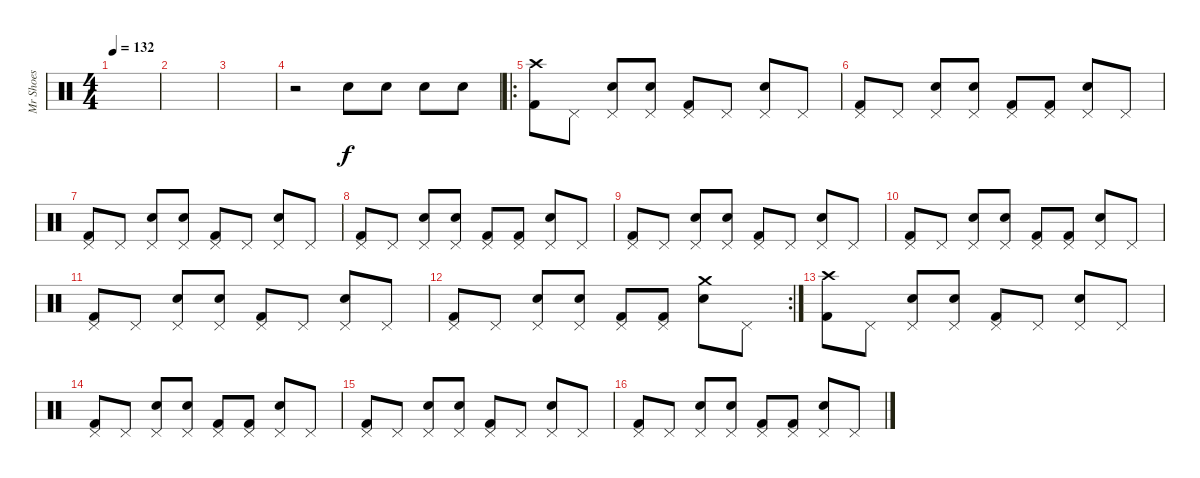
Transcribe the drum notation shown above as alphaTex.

\track ("Mr Shoes" "Mr Shoes") {instrument percussion}
\staff {score}
\articulation defaults
\ts (4 4)
\tempo 132
\clef neutral
\ks c
|
|
|
r.2 "Electric Snare (hit)".8 "Electric Snare (hit)".8 "Electric Snare (hit)".8 "Electric Snare (hit)".8 |
\ro
("Kick (hit) 2" "Crash high (hit)").8 "Pedal Hi-Hat (hit)".8 ("Electric Snare (hit)" "Pedal Hi-Hat (hit)").8 ("Electric Snare (hit)" "Pedal Hi-Hat (hit)").8 ("Kick (hit) 2" "Pedal Hi-Hat (hit)").8 "Pedal Hi-Hat (hit)".8 ("Electric Snare (hit)" "Pedal Hi-Hat (hit)").8 "Pedal Hi-Hat (hit)".8 |
("Kick (hit) 2" "Pedal Hi-Hat (hit)").8 "Pedal Hi-Hat (hit)".8 ("Electric Snare (hit)" "Pedal Hi-Hat (hit)").8 ("Electric Snare (hit)" "Pedal Hi-Hat (hit)").8 ("Kick (hit) 2" "Pedal Hi-Hat (hit)").8 ("Kick (hit) 2" "Pedal Hi-Hat (hit)").8 ("Electric Snare (hit)" "Pedal Hi-Hat (hit)").8 "Pedal Hi-Hat (hit)".8 |
("Kick (hit) 2" "Pedal Hi-Hat (hit)").8 "Pedal Hi-Hat (hit)".8 ("Electric Snare (hit)" "Pedal Hi-Hat (hit)").8 ("Electric Snare (hit)" "Pedal Hi-Hat (hit)").8 ("Kick (hit) 2" "Pedal Hi-Hat (hit)").8 "Pedal Hi-Hat (hit)".8 ("Electric Snare (hit)" "Pedal Hi-Hat (hit)").8 "Pedal Hi-Hat (hit)".8 |
("Kick (hit) 2" "Pedal Hi-Hat (hit)").8 "Pedal Hi-Hat (hit)".8 ("Electric Snare (hit)" "Pedal Hi-Hat (hit)").8 ("Electric Snare (hit)" "Pedal Hi-Hat (hit)").8 ("Kick (hit) 2" "Pedal Hi-Hat (hit)").8 ("Kick (hit) 2" "Pedal Hi-Hat (hit)").8 ("Electric Snare (hit)" "Pedal Hi-Hat (hit)").8 "Pedal Hi-Hat (hit)".8 |
("Kick (hit) 2" "Pedal Hi-Hat (hit)").8 "Pedal Hi-Hat (hit)".8 ("Electric Snare (hit)" "Pedal Hi-Hat (hit)").8 ("Electric Snare (hit)" "Pedal Hi-Hat (hit)").8 ("Kick (hit) 2" "Pedal Hi-Hat (hit)").8 "Pedal Hi-Hat (hit)".8 ("Electric Snare (hit)" "Pedal Hi-Hat (hit)").8 "Pedal Hi-Hat (hit)".8 |
("Kick (hit) 2" "Pedal Hi-Hat (hit)").8 "Pedal Hi-Hat (hit)".8 ("Electric Snare (hit)" "Pedal Hi-Hat (hit)").8 ("Electric Snare (hit)" "Pedal Hi-Hat (hit)").8 ("Kick (hit) 2" "Pedal Hi-Hat (hit)").8 ("Kick (hit) 2" "Pedal Hi-Hat (hit)").8 ("Electric Snare (hit)" "Pedal Hi-Hat (hit)").8 "Pedal Hi-Hat (hit)".8 |
("Kick (hit) 2" "Pedal Hi-Hat (hit)").8 "Pedal Hi-Hat (hit)".8 ("Electric Snare (hit)" "Pedal Hi-Hat (hit)").8 ("Electric Snare (hit)" "Pedal Hi-Hat (hit)").8 ("Kick (hit) 2" "Pedal Hi-Hat (hit)").8 "Pedal Hi-Hat (hit)".8 ("Electric Snare (hit)" "Pedal Hi-Hat (hit)").8 "Pedal Hi-Hat (hit)".8 |
\rc 2
("Kick (hit) 2" "Pedal Hi-Hat (hit)").8 "Pedal Hi-Hat (hit)".8 ("Electric Snare (hit)" "Pedal Hi-Hat (hit)").8 ("Electric Snare (hit)" "Pedal Hi-Hat (hit)").8 ("Kick (hit) 2" "Pedal Hi-Hat (hit)").8 ("Kick (hit) 2" "Pedal Hi-Hat (hit)").8 ("Electric Snare (hit)" "Crash medium (hit)").8 "Pedal Hi-Hat (hit)".8 |
("Kick (hit) 2" "Crash high (hit)").8 "Pedal Hi-Hat (hit)".8 ("Electric Snare (hit)" "Pedal Hi-Hat (hit)").8 ("Electric Snare (hit)" "Pedal Hi-Hat (hit)").8 ("Kick (hit) 2" "Pedal Hi-Hat (hit)").8 "Pedal Hi-Hat (hit)".8 ("Electric Snare (hit)" "Pedal Hi-Hat (hit)").8 "Pedal Hi-Hat (hit)".8 |
("Kick (hit) 2" "Pedal Hi-Hat (hit)").8 "Pedal Hi-Hat (hit)".8 ("Electric Snare (hit)" "Pedal Hi-Hat (hit)").8 ("Electric Snare (hit)" "Pedal Hi-Hat (hit)").8 ("Kick (hit) 2" "Pedal Hi-Hat (hit)").8 ("Kick (hit) 2" "Pedal Hi-Hat (hit)").8 ("Electric Snare (hit)" "Pedal Hi-Hat (hit)").8 "Pedal Hi-Hat (hit)".8 |
("Kick (hit) 2" "Pedal Hi-Hat (hit)").8 "Pedal Hi-Hat (hit)".8 ("Electric Snare (hit)" "Pedal Hi-Hat (hit)").8 ("Electric Snare (hit)" "Pedal Hi-Hat (hit)").8 ("Kick (hit) 2" "Pedal Hi-Hat (hit)").8 "Pedal Hi-Hat (hit)".8 ("Electric Snare (hit)" "Pedal Hi-Hat (hit)").8 "Pedal Hi-Hat (hit)".8 |
("Kick (hit) 2" "Pedal Hi-Hat (hit)").8 "Pedal Hi-Hat (hit)".8 ("Electric Snare (hit)" "Pedal Hi-Hat (hit)").8 ("Electric Snare (hit)" "Pedal Hi-Hat (hit)").8 ("Kick (hit) 2" "Pedal Hi-Hat (hit)").8 ("Kick (hit) 2" "Pedal Hi-Hat (hit)").8 ("Electric Snare (hit)" "Pedal Hi-Hat (hit)").8 "Pedal Hi-Hat (hit)".8
